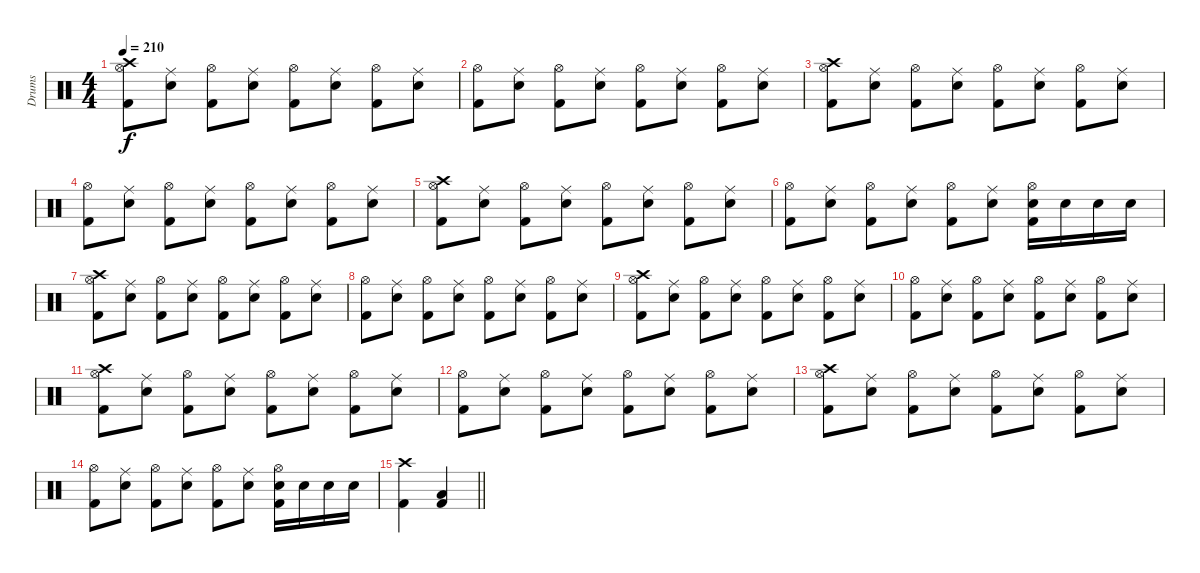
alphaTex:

\track ("Drums" "Drums") {instrument percussion}
\staff {score}
\articulation defaults
\ts (4 4)
\tempo 210
\clef neutral
\ks c
("Crash high (hit)" "Hi-Hat (open)" "Kick (hit) 2").8{dy f} ("Ride (middle)" "Snare (hit) 2").8 ("Hi-Hat (open)" "Kick (hit) 2").8 ("Ride (middle)" "Snare (hit) 2").8 ("Hi-Hat (open)" "Kick (hit) 2").8 ("Ride (middle)" "Snare (hit) 2").8 ("Hi-Hat (open)" "Kick (hit) 2").8 ("Ride (middle)" "Snare (hit) 2").8 |
("Hi-Hat (open)" "Kick (hit) 2").8 ("Ride (middle)" "Snare (hit) 2").8 ("Hi-Hat (open)" "Kick (hit) 2").8 ("Ride (middle)" "Snare (hit) 2").8 ("Hi-Hat (open)" "Kick (hit) 2").8 ("Ride (middle)" "Snare (hit) 2").8 ("Hi-Hat (open)" "Kick (hit) 2").8 ("Ride (middle)" "Snare (hit) 2").8 |
("Crash high (hit)" "Hi-Hat (open)" "Kick (hit) 2").8 ("Ride (middle)" "Snare (hit) 2").8 ("Hi-Hat (open)" "Kick (hit) 2").8 ("Ride (middle)" "Snare (hit) 2").8 ("Hi-Hat (open)" "Kick (hit) 2").8 ("Ride (middle)" "Snare (hit) 2").8 ("Hi-Hat (open)" "Kick (hit) 2").8 ("Ride (middle)" "Snare (hit) 2").8 |
("Hi-Hat (open)" "Kick (hit) 2").8 ("Ride (middle)" "Snare (hit) 2").8 ("Hi-Hat (open)" "Kick (hit) 2").8 ("Ride (middle)" "Snare (hit) 2").8 ("Hi-Hat (open)" "Kick (hit) 2").8 ("Ride (middle)" "Snare (hit) 2").8 ("Hi-Hat (open)" "Kick (hit) 2").8 ("Ride (middle)" "Snare (hit) 2").8 |
("Crash high (hit)" "Hi-Hat (open)" "Kick (hit) 2").8 ("Ride (middle)" "Snare (hit) 2").8 ("Hi-Hat (open)" "Kick (hit) 2").8 ("Ride (middle)" "Snare (hit) 2").8 ("Hi-Hat (open)" "Kick (hit) 2").8 ("Ride (middle)" "Snare (hit) 2").8 ("Hi-Hat (open)" "Kick (hit) 2").8 ("Ride (middle)" "Snare (hit) 2").8 |
("Hi-Hat (open)" "Kick (hit) 2").8 ("Ride (middle)" "Snare (hit) 2").8 ("Hi-Hat (open)" "Kick (hit) 2").8 ("Ride (middle)" "Snare (hit) 2").8 ("Hi-Hat (open)" "Kick (hit) 2").8 ("Ride (middle)" "Snare (hit) 2").8 ("Hi-Hat (open)" "Snare (hit) 2" "Kick (hit) 2").16 "Snare (hit) 2".16 "Snare (hit) 2".16 "Snare (hit) 2".16 |
("Crash high (hit)" "Hi-Hat (open)" "Kick (hit) 2").8 ("Ride (middle)" "Snare (hit) 2").8 ("Hi-Hat (open)" "Kick (hit) 2").8 ("Ride (middle)" "Snare (hit) 2").8 ("Hi-Hat (open)" "Kick (hit) 2").8 ("Ride (middle)" "Snare (hit) 2").8 ("Hi-Hat (open)" "Kick (hit) 2").8 ("Ride (middle)" "Snare (hit) 2").8 |
("Hi-Hat (open)" "Kick (hit) 2").8 ("Ride (middle)" "Snare (hit) 2").8 ("Hi-Hat (open)" "Kick (hit) 2").8 ("Ride (middle)" "Snare (hit) 2").8 ("Hi-Hat (open)" "Kick (hit) 2").8 ("Ride (middle)" "Snare (hit) 2").8 ("Hi-Hat (open)" "Kick (hit) 2").8 ("Ride (middle)" "Snare (hit) 2").8 |
("Crash high (hit)" "Hi-Hat (open)" "Kick (hit) 2").8 ("Ride (middle)" "Snare (hit) 2").8 ("Hi-Hat (open)" "Kick (hit) 2").8 ("Ride (middle)" "Snare (hit) 2").8 ("Hi-Hat (open)" "Kick (hit) 2").8 ("Ride (middle)" "Snare (hit) 2").8 ("Hi-Hat (open)" "Kick (hit) 2").8 ("Ride (middle)" "Snare (hit) 2").8 |
("Hi-Hat (open)" "Kick (hit) 2").8 ("Ride (middle)" "Snare (hit) 2").8 ("Hi-Hat (open)" "Kick (hit) 2").8 ("Ride (middle)" "Snare (hit) 2").8 ("Hi-Hat (open)" "Kick (hit) 2").8 ("Ride (middle)" "Snare (hit) 2").8 ("Hi-Hat (open)" "Kick (hit) 2").8 ("Ride (middle)" "Snare (hit) 2").8 |
("Crash high (hit)" "Hi-Hat (open)" "Kick (hit) 2").8 ("Ride (middle)" "Snare (hit) 2").8 ("Hi-Hat (open)" "Kick (hit) 2").8 ("Ride (middle)" "Snare (hit) 2").8 ("Hi-Hat (open)" "Kick (hit) 2").8 ("Ride (middle)" "Snare (hit) 2").8 ("Hi-Hat (open)" "Kick (hit) 2").8 ("Ride (middle)" "Snare (hit) 2").8 |
("Hi-Hat (open)" "Kick (hit) 2").8 ("Ride (middle)" "Snare (hit) 2").8 ("Hi-Hat (open)" "Kick (hit) 2").8 ("Ride (middle)" "Snare (hit) 2").8 ("Hi-Hat (open)" "Kick (hit) 2").8 ("Ride (middle)" "Snare (hit) 2").8 ("Hi-Hat (open)" "Kick (hit) 2").8 ("Ride (middle)" "Snare (hit) 2").8 |
("Crash high (hit)" "Hi-Hat (open)" "Kick (hit) 2").8 ("Ride (middle)" "Snare (hit) 2").8 ("Hi-Hat (open)" "Kick (hit) 2").8 ("Ride (middle)" "Snare (hit) 2").8 ("Hi-Hat (open)" "Kick (hit) 2").8 ("Ride (middle)" "Snare (hit) 2").8 ("Hi-Hat (open)" "Kick (hit) 2").8 ("Ride (middle)" "Snare (hit) 2").8 |
("Hi-Hat (open)" "Kick (hit) 2").8 ("Ride (middle)" "Snare (hit) 2").8 ("Hi-Hat (open)" "Kick (hit) 2").8 ("Ride (middle)" "Snare (hit) 2").8 ("Hi-Hat (open)" "Kick (hit) 2").8 ("Ride (middle)" "Snare (hit) 2").8 ("Hi-Hat (open)" "Snare (hit) 2" "Kick (hit) 2").16 "Snare (hit) 2".16 "Snare (hit) 2".16 "Snare (hit) 2".16 |
\barLineRight lightlight
("Crash high (hit)" "Kick (hit) 2").4 ("Low Floor Tom (hit)" "Kick (hit) 2").4
